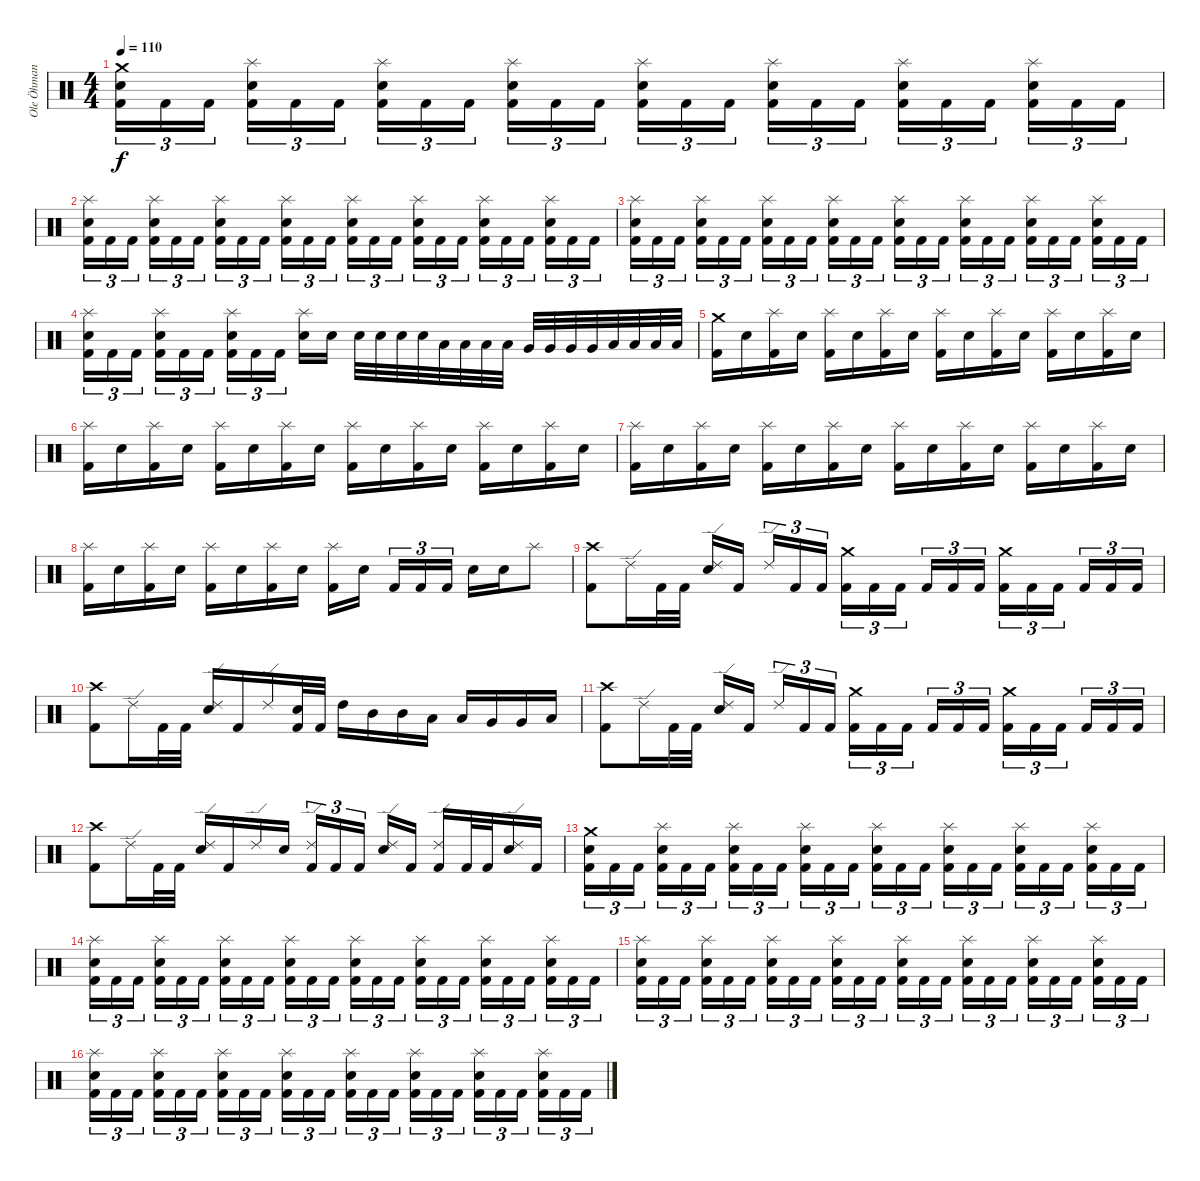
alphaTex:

\track ("Ole Öhman" "Ole Öhman") {instrument percussion}
\staff {score}
\articulation defaults
\ts (4 4)
\tempo 110
\clef neutral
\ks c
("Crash medium (hit)" "Electric Snare (hit)" "Kick (hit) 2").16{tu (3 2) dy f} "Kick (hit) 2".16{tu (3 2)} "Kick (hit) 2".16{tu (3 2)} ("Splash (hit)" "Electric Snare (hit)" "Kick (hit) 2").16{tu (3 2)} "Kick (hit) 2".16{tu (3 2)} "Kick (hit) 2".16{tu (3 2)} ("Splash (hit)" "Electric Snare (hit)" "Kick (hit) 2").16{tu (3 2)} "Kick (hit) 2".16{tu (3 2)} "Kick (hit) 2".16{tu (3 2)} ("Splash (hit)" "Electric Snare (hit)" "Kick (hit) 2").16{tu (3 2)} "Kick (hit) 2".16{tu (3 2)} "Kick (hit) 2".16{tu (3 2)} ("Splash (hit)" "Electric Snare (hit)" "Kick (hit) 2").16{tu (3 2)} "Kick (hit) 2".16{tu (3 2)} "Kick (hit) 2".16{tu (3 2)} ("Splash (hit)" "Electric Snare (hit)" "Kick (hit) 2").16{tu (3 2)} "Kick (hit) 2".16{tu (3 2)} "Kick (hit) 2".16{tu (3 2)} ("Splash (hit)" "Electric Snare (hit)" "Kick (hit) 2").16{tu (3 2)} "Kick (hit) 2".16{tu (3 2)} "Kick (hit) 2".16{tu (3 2)} ("Splash (hit)" "Electric Snare (hit)" "Kick (hit) 2").16{tu (3 2)} "Kick (hit) 2".16{tu (3 2)} "Kick (hit) 2".16{tu (3 2)} |
("Splash (hit)" "Electric Snare (hit)" "Kick (hit) 2").16{tu (3 2)} "Kick (hit) 2".16{tu (3 2)} "Kick (hit) 2".16{tu (3 2)} ("Splash (hit)" "Electric Snare (hit)" "Kick (hit) 2").16{tu (3 2)} "Kick (hit) 2".16{tu (3 2)} "Kick (hit) 2".16{tu (3 2)} ("Splash (hit)" "Electric Snare (hit)" "Kick (hit) 2").16{tu (3 2)} "Kick (hit) 2".16{tu (3 2)} "Kick (hit) 2".16{tu (3 2)} ("Splash (hit)" "Electric Snare (hit)" "Kick (hit) 2").16{tu (3 2)} "Kick (hit) 2".16{tu (3 2)} "Kick (hit) 2".16{tu (3 2)} ("Splash (hit)" "Electric Snare (hit)" "Kick (hit) 2").16{tu (3 2)} "Kick (hit) 2".16{tu (3 2)} "Kick (hit) 2".16{tu (3 2)} ("Splash (hit)" "Electric Snare (hit)" "Kick (hit) 2").16{tu (3 2)} "Kick (hit) 2".16{tu (3 2)} "Kick (hit) 2".16{tu (3 2)} ("Splash (hit)" "Electric Snare (hit)" "Kick (hit) 2").16{tu (3 2)} "Kick (hit) 2".16{tu (3 2)} "Kick (hit) 2".16{tu (3 2)} ("Splash (hit)" "Electric Snare (hit)" "Kick (hit) 2").16{tu (3 2)} "Kick (hit) 2".16{tu (3 2)} "Kick (hit) 2".16{tu (3 2)} |
("Splash (hit)" "Electric Snare (hit)" "Kick (hit) 2").16{tu (3 2)} "Kick (hit) 2".16{tu (3 2)} "Kick (hit) 2".16{tu (3 2)} ("Splash (hit)" "Electric Snare (hit)" "Kick (hit) 2").16{tu (3 2)} "Kick (hit) 2".16{tu (3 2)} "Kick (hit) 2".16{tu (3 2)} ("Splash (hit)" "Electric Snare (hit)" "Kick (hit) 2").16{tu (3 2)} "Kick (hit) 2".16{tu (3 2)} "Kick (hit) 2".16{tu (3 2)} ("Splash (hit)" "Electric Snare (hit)" "Kick (hit) 2").16{tu (3 2)} "Kick (hit) 2".16{tu (3 2)} "Kick (hit) 2".16{tu (3 2)} ("Splash (hit)" "Electric Snare (hit)" "Kick (hit) 2").16{tu (3 2)} "Kick (hit) 2".16{tu (3 2)} "Kick (hit) 2".16{tu (3 2)} ("Splash (hit)" "Electric Snare (hit)" "Kick (hit) 2").16{tu (3 2)} "Kick (hit) 2".16{tu (3 2)} "Kick (hit) 2".16{tu (3 2)} ("Splash (hit)" "Electric Snare (hit)" "Kick (hit) 2").16{tu (3 2)} "Kick (hit) 2".16{tu (3 2)} "Kick (hit) 2".16{tu (3 2)} ("Splash (hit)" "Electric Snare (hit)" "Kick (hit) 2").16{tu (3 2)} "Kick (hit) 2".16{tu (3 2)} "Kick (hit) 2".16{tu (3 2)} |
("Splash (hit)" "Electric Snare (hit)" "Kick (hit) 2").16{tu (3 2)} "Kick (hit) 2".16{tu (3 2)} "Kick (hit) 2".16{tu (3 2)} ("Splash (hit)" "Electric Snare (hit)" "Kick (hit) 2").16{tu (3 2)} "Kick (hit) 2".16{tu (3 2)} "Kick (hit) 2".16{tu (3 2)} ("Splash (hit)" "Electric Snare (hit)" "Kick (hit) 2").16{tu (3 2)} "Kick (hit) 2".16{tu (3 2)} "Kick (hit) 2".16{tu (3 2)} ("Splash (hit)" "Electric Snare (hit)").16 "Electric Snare (hit)".16 "Electric Snare (hit)".32 "Electric Snare (hit)".32 "Electric Snare (hit)".32 "Electric Snare (hit)".32 "Low Tom (hit)".32 "Low Tom (hit)".32 "Low Tom (hit)".32 "Low Tom (hit)".32 "Very Low Tom (hit)".32 "Very Low Tom (hit)".32 "Very Low Tom (hit)".32 "Very Low Tom (hit)".32 "Low Floor Tom (hit)".32 "Low Floor Tom (hit)".32 "Low Floor Tom (hit)".32 "Low Floor Tom (hit)".32 |
("Crash medium (hit)" "Kick (hit) 2").16 "Electric Snare (hit)".16 ("Splash (hit)" "Kick (hit) 2").16 "Electric Snare (hit)".16 ("Splash (hit)" "Kick (hit) 2").16 "Electric Snare (hit)".16 ("Splash (hit)" "Kick (hit) 2").16 "Electric Snare (hit)".16 ("Splash (hit)" "Kick (hit) 2").16 "Electric Snare (hit)".16 ("Splash (hit)" "Kick (hit) 2").16 "Electric Snare (hit)".16 ("Splash (hit)" "Kick (hit) 2").16 "Electric Snare (hit)".16 ("Splash (hit)" "Kick (hit) 2").16 "Electric Snare (hit)".16 |
("Splash (hit)" "Kick (hit) 2").16 "Electric Snare (hit)".16 ("Splash (hit)" "Kick (hit) 2").16 "Electric Snare (hit)".16 ("Splash (hit)" "Kick (hit) 2").16 "Electric Snare (hit)".16 ("Splash (hit)" "Kick (hit) 2").16 "Electric Snare (hit)".16 ("Splash (hit)" "Kick (hit) 2").16 "Electric Snare (hit)".16 ("Splash (hit)" "Kick (hit) 2").16 "Electric Snare (hit)".16 ("Splash (hit)" "Kick (hit) 2").16 "Electric Snare (hit)".16 ("Splash (hit)" "Kick (hit) 2").16 "Electric Snare (hit)".16 |
("Splash (hit)" "Kick (hit) 2").16 "Electric Snare (hit)".16 ("Splash (hit)" "Kick (hit) 2").16 "Electric Snare (hit)".16 ("Splash (hit)" "Kick (hit) 2").16 "Electric Snare (hit)".16 ("Splash (hit)" "Kick (hit) 2").16 "Electric Snare (hit)".16 ("Splash (hit)" "Kick (hit) 2").16 "Electric Snare (hit)".16 ("Splash (hit)" "Kick (hit) 2").16 "Electric Snare (hit)".16 ("Splash (hit)" "Kick (hit) 2").16 "Electric Snare (hit)".16 ("Splash (hit)" "Kick (hit) 2").16 "Electric Snare (hit)".16 |
("Splash (hit)" "Kick (hit) 2").16 "Electric Snare (hit)".16 ("Splash (hit)" "Kick (hit) 2").16 "Electric Snare (hit)".16 ("Splash (hit)" "Kick (hit) 2").16 "Electric Snare (hit)".16 ("Splash (hit)" "Kick (hit) 2").16 "Electric Snare (hit)".16 ("Splash (hit)" "Kick (hit) 2").16 "Electric Snare (hit)".16 "Kick (hit) 2".16{tu (3 2)} "Kick (hit) 2".16{tu (3 2)} "Kick (hit) 2".16{tu (3 2)} "Electric Snare (hit)".16 "Electric Snare (hit)".16 "Splash (hit)".8 |
("Crash high (hit)" "Kick (hit) 2").8 "Ride (edge) 2".16 "Kick (hit) 2".32 "Kick (hit) 2".32 ("Ride (edge) 2" "Electric Snare (hit)").16 "Kick (hit) 2".16 "Ride (edge) 2".16{tu (3 2)} "Kick (hit) 2".16{tu (3 2)} "Kick (hit) 2".16{tu (3 2)} ("Crash medium (hit)" "Kick (hit) 2").16{tu (3 2)} "Kick (hit) 2".16{tu (3 2)} "Kick (hit) 2".16{tu (3 2)} "Kick (hit) 2".16{tu (3 2)} "Kick (hit) 2".16{tu (3 2)} "Kick (hit) 2".16{tu (3 2)} ("Crash medium (hit)" "Kick (hit) 2").16{tu (3 2)} "Kick (hit) 2".16{tu (3 2)} "Kick (hit) 2".16{tu (3 2)} "Kick (hit) 2".16{tu (3 2)} "Kick (hit) 2".16{tu (3 2)} "Kick (hit) 2".16{tu (3 2)} |
("Crash high (hit)" "Kick (hit) 2").8 "Ride (edge) 2".16 "Kick (hit) 2".32 "Kick (hit) 2".32 ("Ride (edge) 2" "Electric Snare (hit)").16 "Kick (hit) 2".16 "Ride (edge) 2".16 ("Electric Snare (hit)" "Kick (hit) 2").32 "Kick (hit) 2".32 "High Tom (hit)".16 "Mid Tom (hit)".16 "Mid Tom (hit)".16 "Low Tom (hit)".16 "Low Tom (hit)".16 "Very Low Tom (hit)".16 "Very Low Tom (hit)".16 "Low Floor Tom (hit)".16 |
("Crash high (hit)" "Kick (hit) 2").8 "Ride (edge) 2".16 "Kick (hit) 2".32 "Kick (hit) 2".32 ("Ride (edge) 2" "Electric Snare (hit)").16 "Kick (hit) 2".16 "Ride (edge) 2".16{tu (3 2)} "Kick (hit) 2".16{tu (3 2)} "Kick (hit) 2".16{tu (3 2)} ("Crash medium (hit)" "Kick (hit) 2").16{tu (3 2)} "Kick (hit) 2".16{tu (3 2)} "Kick (hit) 2".16{tu (3 2)} "Kick (hit) 2".16{tu (3 2)} "Kick (hit) 2".16{tu (3 2)} "Kick (hit) 2".16{tu (3 2)} ("Crash medium (hit)" "Kick (hit) 2").16{tu (3 2)} "Kick (hit) 2".16{tu (3 2)} "Kick (hit) 2".16{tu (3 2)} "Kick (hit) 2".16{tu (3 2)} "Kick (hit) 2".16{tu (3 2)} "Kick (hit) 2".16{tu (3 2)} |
("Crash high (hit)" "Kick (hit) 2").8 "Ride (edge) 2".16 "Kick (hit) 2".32 "Kick (hit) 2".32 ("Ride (edge) 2" "Electric Snare (hit)").16 "Kick (hit) 2".16 "Ride (edge) 2".16 "Electric Snare (hit)".16 ("Ride (edge) 2" "Kick (hit) 2").16{tu (3 2)} "Kick (hit) 2".16{tu (3 2)} "Kick (hit) 2".16{tu (3 2)} ("Ride (edge) 2" "Electric Snare (hit)").16 "Kick (hit) 2".16 ("Ride (edge) 2" "Kick (hit) 2").16 "Kick (hit) 2".32 "Kick (hit) 2".32 ("Ride (edge) 2" "Electric Snare (hit)").16 "Kick (hit) 2".16 |
("Crash medium (hit)" "Electric Snare (hit)" "Kick (hit) 2").16{tu (3 2)} "Kick (hit) 2".16{tu (3 2)} "Kick (hit) 2".16{tu (3 2)} ("Splash (hit)" "Electric Snare (hit)" "Kick (hit) 2").16{tu (3 2)} "Kick (hit) 2".16{tu (3 2)} "Kick (hit) 2".16{tu (3 2)} ("Splash (hit)" "Electric Snare (hit)" "Kick (hit) 2").16{tu (3 2)} "Kick (hit) 2".16{tu (3 2)} "Kick (hit) 2".16{tu (3 2)} ("Splash (hit)" "Electric Snare (hit)" "Kick (hit) 2").16{tu (3 2)} "Kick (hit) 2".16{tu (3 2)} "Kick (hit) 2".16{tu (3 2)} ("Splash (hit)" "Electric Snare (hit)" "Kick (hit) 2").16{tu (3 2)} "Kick (hit) 2".16{tu (3 2)} "Kick (hit) 2".16{tu (3 2)} ("Splash (hit)" "Electric Snare (hit)" "Kick (hit) 2").16{tu (3 2)} "Kick (hit) 2".16{tu (3 2)} "Kick (hit) 2".16{tu (3 2)} ("Splash (hit)" "Electric Snare (hit)" "Kick (hit) 2").16{tu (3 2)} "Kick (hit) 2".16{tu (3 2)} "Kick (hit) 2".16{tu (3 2)} ("Splash (hit)" "Electric Snare (hit)" "Kick (hit) 2").16{tu (3 2)} "Kick (hit) 2".16{tu (3 2)} "Kick (hit) 2".16{tu (3 2)} |
("Splash (hit)" "Electric Snare (hit)" "Kick (hit) 2").16{tu (3 2)} "Kick (hit) 2".16{tu (3 2)} "Kick (hit) 2".16{tu (3 2)} ("Splash (hit)" "Electric Snare (hit)" "Kick (hit) 2").16{tu (3 2)} "Kick (hit) 2".16{tu (3 2)} "Kick (hit) 2".16{tu (3 2)} ("Splash (hit)" "Electric Snare (hit)" "Kick (hit) 2").16{tu (3 2)} "Kick (hit) 2".16{tu (3 2)} "Kick (hit) 2".16{tu (3 2)} ("Splash (hit)" "Electric Snare (hit)" "Kick (hit) 2").16{tu (3 2)} "Kick (hit) 2".16{tu (3 2)} "Kick (hit) 2".16{tu (3 2)} ("Splash (hit)" "Electric Snare (hit)" "Kick (hit) 2").16{tu (3 2)} "Kick (hit) 2".16{tu (3 2)} "Kick (hit) 2".16{tu (3 2)} ("Splash (hit)" "Electric Snare (hit)" "Kick (hit) 2").16{tu (3 2)} "Kick (hit) 2".16{tu (3 2)} "Kick (hit) 2".16{tu (3 2)} ("Splash (hit)" "Electric Snare (hit)" "Kick (hit) 2").16{tu (3 2)} "Kick (hit) 2".16{tu (3 2)} "Kick (hit) 2".16{tu (3 2)} ("Splash (hit)" "Electric Snare (hit)" "Kick (hit) 2").16{tu (3 2)} "Kick (hit) 2".16{tu (3 2)} "Kick (hit) 2".16{tu (3 2)} |
("Splash (hit)" "Electric Snare (hit)" "Kick (hit) 2").16{tu (3 2)} "Kick (hit) 2".16{tu (3 2)} "Kick (hit) 2".16{tu (3 2)} ("Splash (hit)" "Electric Snare (hit)" "Kick (hit) 2").16{tu (3 2)} "Kick (hit) 2".16{tu (3 2)} "Kick (hit) 2".16{tu (3 2)} ("Splash (hit)" "Electric Snare (hit)" "Kick (hit) 2").16{tu (3 2)} "Kick (hit) 2".16{tu (3 2)} "Kick (hit) 2".16{tu (3 2)} ("Splash (hit)" "Electric Snare (hit)" "Kick (hit) 2").16{tu (3 2)} "Kick (hit) 2".16{tu (3 2)} "Kick (hit) 2".16{tu (3 2)} ("Splash (hit)" "Electric Snare (hit)" "Kick (hit) 2").16{tu (3 2)} "Kick (hit) 2".16{tu (3 2)} "Kick (hit) 2".16{tu (3 2)} ("Splash (hit)" "Electric Snare (hit)" "Kick (hit) 2").16{tu (3 2)} "Kick (hit) 2".16{tu (3 2)} "Kick (hit) 2".16{tu (3 2)} ("Splash (hit)" "Electric Snare (hit)" "Kick (hit) 2").16{tu (3 2)} "Kick (hit) 2".16{tu (3 2)} "Kick (hit) 2".16{tu (3 2)} ("Splash (hit)" "Electric Snare (hit)" "Kick (hit) 2").16{tu (3 2)} "Kick (hit) 2".16{tu (3 2)} "Kick (hit) 2".16{tu (3 2)} |
("Splash (hit)" "Electric Snare (hit)" "Kick (hit) 2").16{tu (3 2)} "Kick (hit) 2".16{tu (3 2)} "Kick (hit) 2".16{tu (3 2)} ("Splash (hit)" "Electric Snare (hit)" "Kick (hit) 2").16{tu (3 2)} "Kick (hit) 2".16{tu (3 2)} "Kick (hit) 2".16{tu (3 2)} ("Splash (hit)" "Electric Snare (hit)" "Kick (hit) 2").16{tu (3 2)} "Kick (hit) 2".16{tu (3 2)} "Kick (hit) 2".16{tu (3 2)} ("Splash (hit)" "Electric Snare (hit)" "Kick (hit) 2").16{tu (3 2)} "Kick (hit) 2".16{tu (3 2)} "Kick (hit) 2".16{tu (3 2)} ("Splash (hit)" "Electric Snare (hit)" "Kick (hit) 2").16{tu (3 2)} "Kick (hit) 2".16{tu (3 2)} "Kick (hit) 2".16{tu (3 2)} ("Splash (hit)" "Electric Snare (hit)" "Kick (hit) 2").16{tu (3 2)} "Kick (hit) 2".16{tu (3 2)} "Kick (hit) 2".16{tu (3 2)} ("Splash (hit)" "Electric Snare (hit)" "Kick (hit) 2").16{tu (3 2)} "Kick (hit) 2".16{tu (3 2)} "Kick (hit) 2".16{tu (3 2)} ("Splash (hit)" "Electric Snare (hit)" "Kick (hit) 2").16{tu (3 2)} "Kick (hit) 2".16{tu (3 2)} "Kick (hit) 2".16{tu (3 2)}
